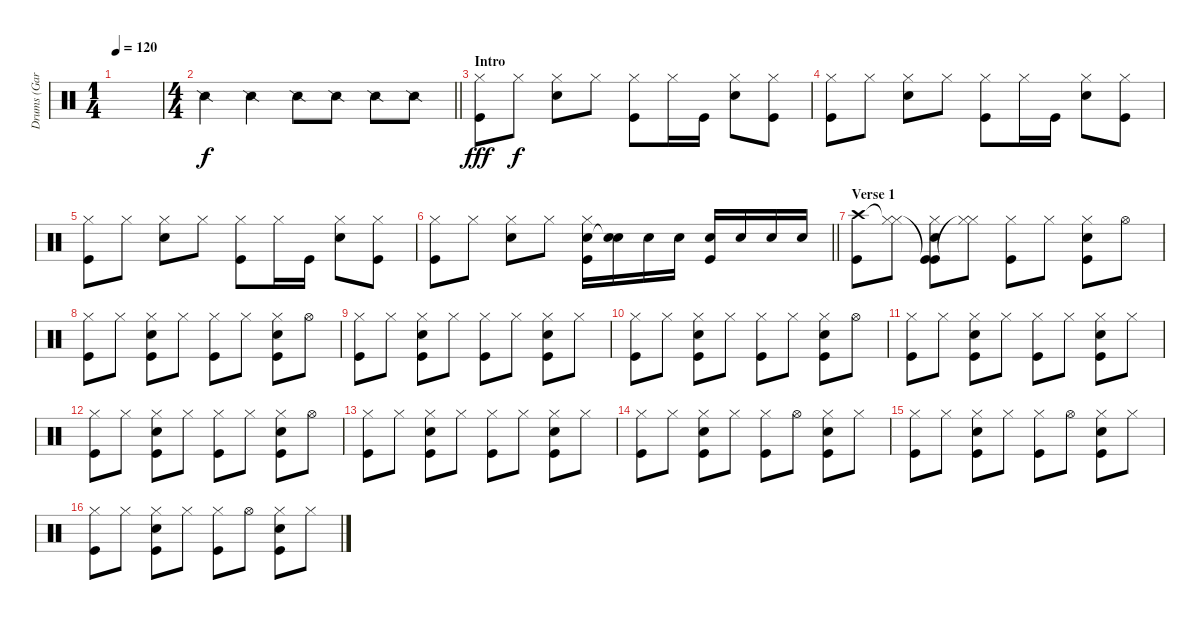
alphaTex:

\track ("Drums (Gary Mallaber)" "Drums (Gar") {instrument percussion}
\staff {score}
\articulation defaults
\ts (1 4)
\tempo 120
\clef neutral
\ks c
|
\ts (4 4)
\barLineRight lightlight "Snare (side stick) 2".4 "Snare (side stick) 2".4 "Snare (side stick) 2".8 "Snare (side stick) 2".8 "Snare (side stick) 2".8 "Snare (side stick) 2".8
|
\section ("" "Intro")
("Hi-Hat (closed)" "Kick (hit)").8{dy fff} "Hi-Hat (closed)".8{dy f} ("Hi-Hat (closed)" "Snare (hit) 2").8 "Hi-Hat (closed)".8 ("Hi-Hat (closed)" "Kick (hit)").8 "Hi-Hat (closed)".16 "Kick (hit)".16 ("Hi-Hat (closed)" "Snare (hit) 2").8 ("Hi-Hat (closed)" "Kick (hit)").8 |
("Hi-Hat (closed)" "Kick (hit)").8 "Hi-Hat (closed)".8 ("Hi-Hat (closed)" "Snare (hit) 2").8 "Hi-Hat (closed)".8 ("Hi-Hat (closed)" "Kick (hit)").8 "Hi-Hat (closed)".16 "Kick (hit)".16 ("Hi-Hat (closed)" "Snare (hit) 2").8 ("Hi-Hat (closed)" "Kick (hit)").8 |
("Hi-Hat (closed)" "Kick (hit)").8 "Hi-Hat (closed)".8 ("Hi-Hat (closed)" "Snare (hit) 2").8 "Hi-Hat (closed)".8 ("Hi-Hat (closed)" "Kick (hit)").8 "Hi-Hat (closed)".16 "Kick (hit)".16 ("Hi-Hat (closed)" "Snare (hit) 2").8 ("Hi-Hat (closed)" "Kick (hit)").8 |
\barLineRight lightlight
("Hi-Hat (closed)" "Kick (hit)").8 "Hi-Hat (closed)".8 ("Hi-Hat (closed)" "Snare (hit) 2").8 "Hi-Hat (closed)".8 ("Hi-Hat (closed)" "Snare (hit) 2" "Kick (hit)").16 ("Snare (hit) 2" "Snare (hit)"{t}).16 "Snare (hit) 2".16 "Snare (hit) 2".16 ("Snare (hit) 2" "Kick (hit)").16 "Snare (hit) 2".16 "Snare (hit) 2".16 "Snare (hit) 2".16 |
\section ("" "Verse 1")
("Crash high (hit)" "Kick (hit)").8 ("Hi-Hat (closed)"{t} "Hi-Hat (closed)").8 ("Kick (hit)"{t} "Hi-Hat (closed)" "Snare (hit) 2" "Kick (hit)").8 ("Hi-Hat (closed)"{t} "Hi-Hat (closed)").8 ("Hi-Hat (closed)" "Kick (hit)").8 "Hi-Hat (closed)".8 ("Hi-Hat (closed)" "Snare (hit) 2" "Kick (hit)").8 "Hi-Hat (open)".8 |
("Hi-Hat (closed)" "Kick (hit)").8 "Hi-Hat (closed)".8 ("Hi-Hat (closed)" "Snare (hit) 2" "Kick (hit)").8 "Hi-Hat (closed)".8 ("Hi-Hat (closed)" "Kick (hit)").8 "Hi-Hat (closed)".8 ("Hi-Hat (closed)" "Snare (hit) 2" "Kick (hit)").8 "Hi-Hat (open)".8 |
("Hi-Hat (closed)" "Kick (hit)").8 "Hi-Hat (closed)".8 ("Hi-Hat (closed)" "Snare (hit) 2" "Kick (hit)").8 "Hi-Hat (closed)".8 ("Hi-Hat (closed)" "Kick (hit)").8 "Hi-Hat (closed)".8 ("Hi-Hat (closed)" "Snare (hit) 2" "Kick (hit)").8 "Hi-Hat (closed)".8 |
("Hi-Hat (closed)" "Kick (hit)").8 "Hi-Hat (closed)".8 ("Hi-Hat (closed)" "Snare (hit) 2" "Kick (hit)").8 "Hi-Hat (closed)".8 ("Hi-Hat (closed)" "Kick (hit)").8 "Hi-Hat (closed)".8 ("Hi-Hat (closed)" "Snare (hit) 2" "Kick (hit)").8 "Hi-Hat (open)".8 |
("Hi-Hat (closed)" "Kick (hit)").8 "Hi-Hat (closed)".8 ("Hi-Hat (closed)" "Snare (hit) 2" "Kick (hit)").8 "Hi-Hat (closed)".8 ("Hi-Hat (closed)" "Kick (hit)").8 "Hi-Hat (closed)".8 ("Hi-Hat (closed)" "Snare (hit) 2" "Kick (hit)").8 "Hi-Hat (closed)".8 |
("Hi-Hat (closed)" "Kick (hit)").8 "Hi-Hat (closed)".8 ("Hi-Hat (closed)" "Snare (hit) 2" "Kick (hit)").8 "Hi-Hat (closed)".8 ("Hi-Hat (closed)" "Kick (hit)").8 "Hi-Hat (closed)".8 ("Hi-Hat (closed)" "Snare (hit) 2" "Kick (hit)").8 "Hi-Hat (open)".8 |
("Hi-Hat (closed)" "Kick (hit)").8 "Hi-Hat (closed)".8 ("Hi-Hat (closed)" "Snare (hit) 2" "Kick (hit)").8 "Hi-Hat (closed)".8 ("Hi-Hat (closed)" "Kick (hit)").8 "Hi-Hat (closed)".8 ("Hi-Hat (closed)" "Snare (hit) 2" "Kick (hit)").8 "Hi-Hat (closed)".8 |
("Hi-Hat (closed)" "Kick (hit)").8 "Hi-Hat (closed)".8 ("Hi-Hat (closed)" "Snare (hit) 2" "Kick (hit)").8 "Hi-Hat (closed)".8 ("Hi-Hat (closed)" "Kick (hit)").8 "Hi-Hat (open)".8 ("Hi-Hat (closed)" "Snare (hit) 2" "Kick (hit)").8 "Hi-Hat (closed)".8 |
("Hi-Hat (closed)" "Kick (hit)").8 "Hi-Hat (closed)".8 ("Hi-Hat (closed)" "Snare (hit) 2" "Kick (hit)").8 "Hi-Hat (closed)".8 ("Hi-Hat (closed)" "Kick (hit)").8 "Hi-Hat (open)".8 ("Hi-Hat (closed)" "Snare (hit) 2" "Kick (hit)").8 "Hi-Hat (closed)".8 |
("Hi-Hat (closed)" "Kick (hit)").8 "Hi-Hat (closed)".8 ("Hi-Hat (closed)" "Snare (hit) 2" "Kick (hit)").8 "Hi-Hat (closed)".8 ("Hi-Hat (closed)" "Kick (hit)").8 "Hi-Hat (open)".8 ("Hi-Hat (closed)" "Snare (hit) 2" "Kick (hit)").8 "Hi-Hat (closed)".8
